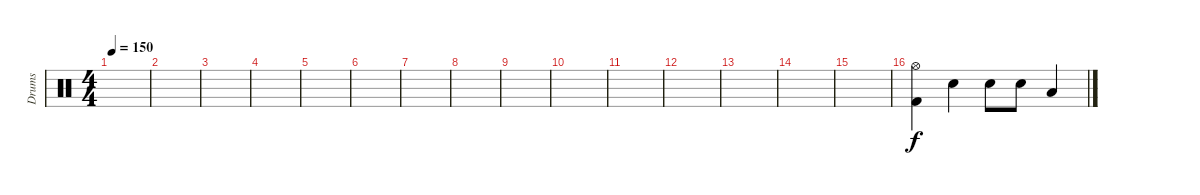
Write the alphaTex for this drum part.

\track ("Drums" "Drums") {instrument percussion}
\staff {score}
\articulation defaults
\ts (4 4)
\tempo 150
\clef neutral
\ks c
|
|
|
|
|
|
|
|
|
|
|
|
|
|
|
("Kick (hit) 2" "Hi-Hat (open)").4 "Electric Snare (hit)".4 "Electric Snare (hit)".8 "Electric Snare (hit)".8 "Low Tom (hit)".4
